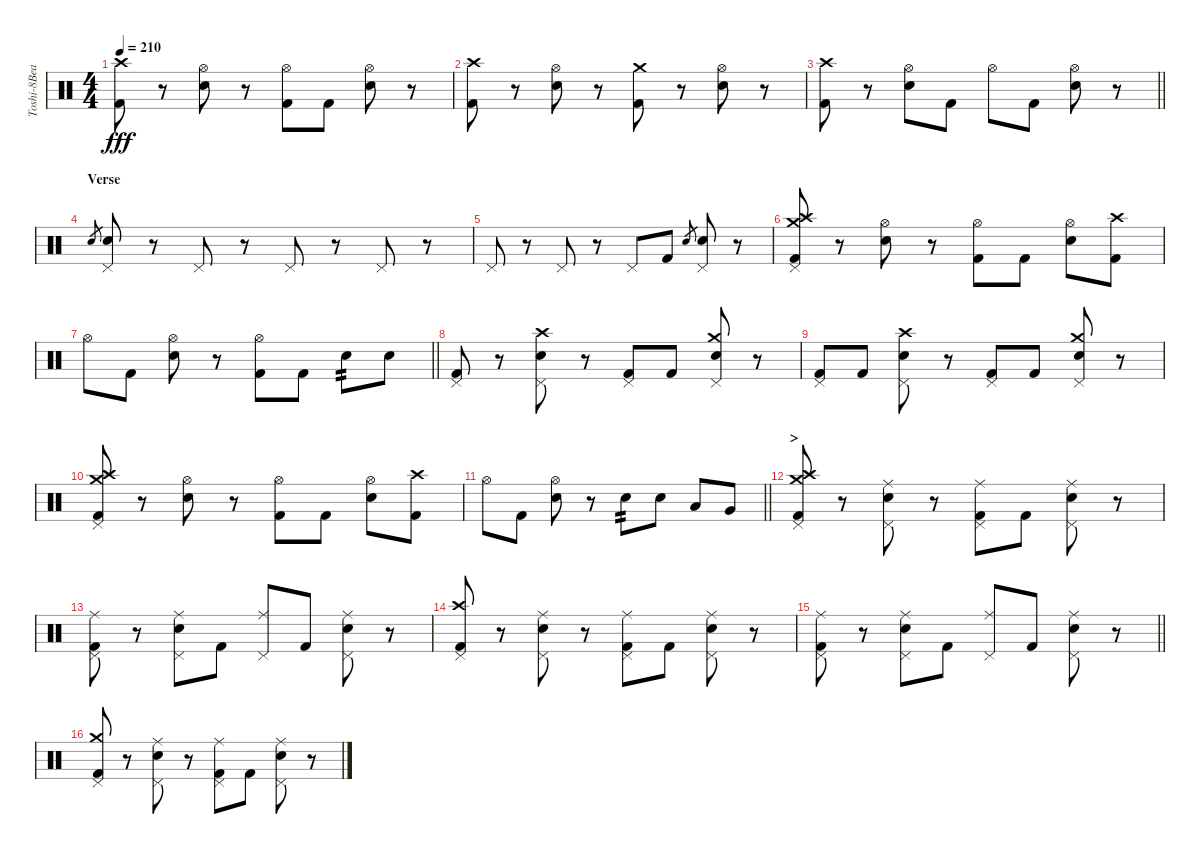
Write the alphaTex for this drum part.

\track ("Toshi-8Beat" "Toshi-8Bea") {instrument percussion}
\staff {score}
\articulation defaults
\ts (4 4)
\tempo 210
\clef neutral
\ks c
("Kick (hit) 2" "Crash high (hit)").8{dy fff} r.8 ("Hi-Hat (open)" "Snare (hit) 2").8 r.8 ("Hi-Hat (open)" "Kick (hit) 2").8 "Kick (hit) 2".8 ("Hi-Hat (open)" "Snare (hit) 2").8 r.8 |
("Kick (hit) 2" "Crash high (hit)").8 r.8 ("Hi-Hat (open)" "Snare (hit) 2").8 r.8 ("Kick (hit) 2" "Crash medium (hit)").8 r.8 ("Hi-Hat (open)" "Snare (hit) 2").8 r.8 |
\barLineRight lightlight
("Kick (hit) 2" "Crash high (hit)").8 r.8 ("Hi-Hat (open)" "Snare (hit) 2").8 "Kick (hit) 2".8 "Hi-Hat (open)".8 "Kick (hit) 2".8 ("Hi-Hat (open)" "Snare (hit) 2").8 r.8 |
\section ("" "Verse")
"Snare (hit) 2".8{gr} ("Pedal Hi-Hat (hit)" "Snare (hit) 2").8 r.8 "Pedal Hi-Hat (hit)".8 r.8 "Pedal Hi-Hat (hit)".8 r.8 "Pedal Hi-Hat (hit)".8 r.8 |
"Pedal Hi-Hat (hit)".8 r.8 "Pedal Hi-Hat (hit)".8 r.8 "Pedal Hi-Hat (hit)".8 "Kick (hit) 2".8 "Snare (hit) 2".8{gr} ("Pedal Hi-Hat (hit)" "Snare (hit) 2").8 r.8 |
("Pedal Hi-Hat (hit)" "Kick (hit) 2" "Crash medium (hit)" "Crash high (hit)").8 r.8 ("Hi-Hat (open)" "Snare (hit) 2").8 r.8 ("Hi-Hat (open)" "Kick (hit) 2").8 "Kick (hit) 2".8 ("Hi-Hat (open)" "Snare (hit) 2").8 ("Kick (hit) 2" "Crash high (hit)").8 |
\barLineRight lightlight "Hi-Hat (open)".8 "Kick (hit) 2".8
("Hi-Hat (open)" "Snare (hit) 2").8 r.8 ("Hi-Hat (open)" "Kick (hit) 2").8 "Kick (hit) 2".8 "Snare (hit) 2".8{tp 2} "Snare (hit) 2".8 |
("Pedal Hi-Hat (hit)" "Kick (hit) 2").8 r.8 ("Pedal Hi-Hat (hit)" "Snare (hit) 2" "Crash high (hit)").8 r.8 ("Pedal Hi-Hat (hit)" "Kick (hit) 2").8 "Kick (hit) 2".8 ("Pedal Hi-Hat (hit)" "Snare (hit) 2" "Crash medium (hit)").8 r.8 |
("Pedal Hi-Hat (hit)" "Kick (hit) 2").8 "Kick (hit) 2".8 ("Pedal Hi-Hat (hit)" "Snare (hit) 2" "Crash high (hit)").8 r.8 ("Pedal Hi-Hat (hit)" "Kick (hit) 2").8 "Kick (hit) 2".8 ("Pedal Hi-Hat (hit)" "Snare (hit) 2" "Crash medium (hit)").8 r.8 |
("Pedal Hi-Hat (hit)" "Kick (hit) 2" "Crash medium (hit)" "Crash high (hit)").8 r.8 ("Hi-Hat (open)" "Snare (hit) 2").8 r.8 ("Hi-Hat (open)" "Kick (hit) 2").8 "Kick (hit) 2".8 ("Hi-Hat (open)" "Snare (hit) 2").8 ("Kick (hit) 2" "Crash high (hit)").8 |
\barLineRight lightlight "Hi-Hat (open)".8 "Kick (hit) 2".8
("Hi-Hat (open)" "Snare (hit) 2").8 r.8 "Snare (hit) 2".8{tp 2} "Snare (hit) 2".8 "Low Tom (hit)".8 "Very Low Tom (hit)".8 |
\section ("" ">")
("Pedal Hi-Hat (hit)" "Kick (hit) 2" "Crash medium (hit)" "Crash high (hit)").8 r.8 ("Pedal Hi-Hat (hit)" "Snare (hit) 2" "Ride (middle)").8 r.8 ("Pedal Hi-Hat (hit)" "Kick (hit) 2" "Ride (middle)").8 "Kick (hit) 2".8 ("Pedal Hi-Hat (hit)" "Snare (hit) 2" "Ride (middle)").8 r.8 |
("Pedal Hi-Hat (hit)" "Kick (hit) 2" "Ride (middle)").8 r.8 ("Pedal Hi-Hat (hit)" "Snare (hit) 2" "Ride (middle)").8 "Kick (hit) 2".8 ("Pedal Hi-Hat (hit)" "Ride (middle)").8 "Kick (hit) 2".8 ("Pedal Hi-Hat (hit)" "Snare (hit) 2" "Ride (middle)").8 r.8 |
("Pedal Hi-Hat (hit)" "Kick (hit) 2" "Crash high (hit)").8 r.8 ("Pedal Hi-Hat (hit)" "Snare (hit) 2" "Ride (middle)").8 r.8 ("Pedal Hi-Hat (hit)" "Kick (hit) 2" "Ride (middle)").8 "Kick (hit) 2".8 ("Pedal Hi-Hat (hit)" "Snare (hit) 2" "Ride (middle)").8 r.8 |
\barLineRight lightlight
("Pedal Hi-Hat (hit)" "Kick (hit) 2" "Ride (middle)").8 r.8 ("Pedal Hi-Hat (hit)" "Snare (hit) 2" "Ride (middle)").8 "Kick (hit) 2".8 ("Pedal Hi-Hat (hit)" "Ride (middle)").8 "Kick (hit) 2".8 ("Pedal Hi-Hat (hit)" "Snare (hit) 2" "Ride (middle)").8 r.8 |
("Pedal Hi-Hat (hit)" "Kick (hit) 2" "Crash medium (hit)").8 r.8 ("Pedal Hi-Hat (hit)" "Snare (hit) 2" "Ride (middle)").8 r.8 ("Pedal Hi-Hat (hit)" "Kick (hit) 2" "Ride (middle)").8 "Kick (hit) 2".8 ("Pedal Hi-Hat (hit)" "Snare (hit) 2" "Ride (middle)").8 r.8
